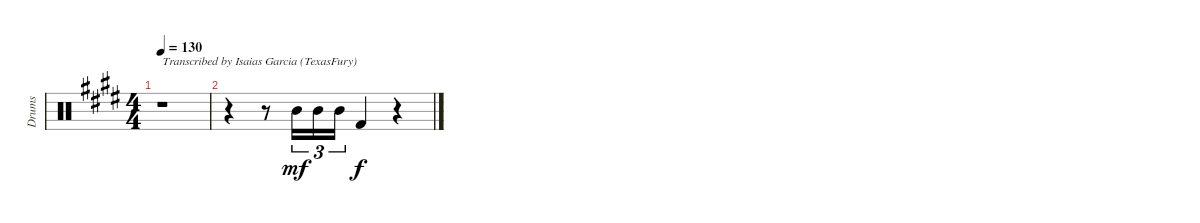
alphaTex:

\track ("Drums" "Drums") {instrument percussion}
\staff {score}
\articulation defaults
\ts (4 4)
\tempo 130
\clef neutral
\ks c#minor
r.1{txt "Transcribed by Isaias Garcia (TexasFury)" dy ff} |
r.4 r.8 "Mid Tom (hit)".16{tu (3 2) dy mf} "Mid Tom (hit)".16{tu (3 2)} "Mid Tom (hit)".16{tu (3 2)} "Kick (hit) 2".4{dy f} r.4
